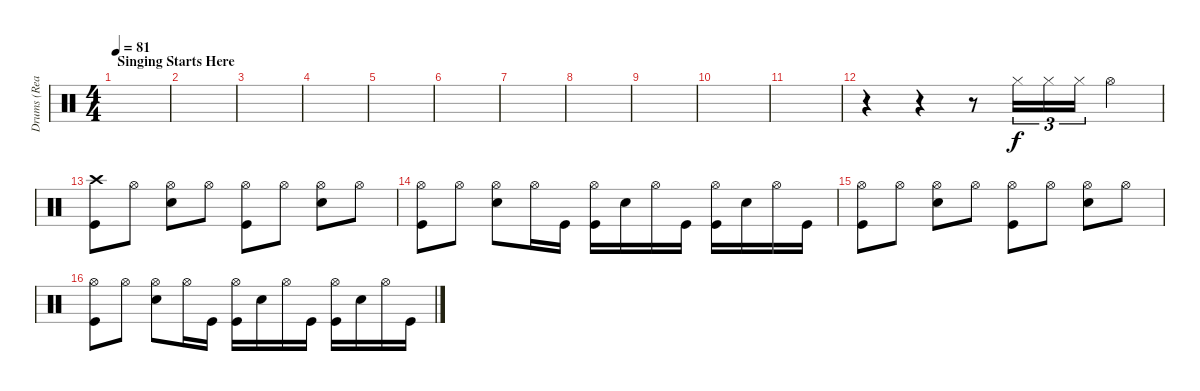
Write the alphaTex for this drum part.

\track ("Drums (Real)" "Drums (Rea") {instrument percussion}
\staff {score}
\articulation defaults
\ts (4 4)
\section ("" "Singing Starts Here")
\tempo 81
\clef neutral
\ks c
|
|
|
|
|
|
|
|
|
|
|
r.4 r.4 r.8 "Hi-Hat (closed)".16{tu (3 2)} "Hi-Hat (closed)".16{tu (3 2)} "Hi-Hat (closed)".16{tu (3 2)} "Hi-Hat (open)".4 |
("Crash high (hit)" "Kick (hit)").8 "Hi-Hat (open)".8 ("Hi-Hat (open)" "Snare (hit) 2").8 "Hi-Hat (open)".8 ("Hi-Hat (open)" "Kick (hit)").8 "Hi-Hat (open)".8 ("Hi-Hat (open)" "Snare (hit) 2").8 "Hi-Hat (open)".8 |
("Hi-Hat (open)" "Kick (hit)").8 "Hi-Hat (open)".8 ("Hi-Hat (open)" "Snare (hit) 2").8 "Hi-Hat (open)".16 "Kick (hit)".16 ("Hi-Hat (open)" "Kick (hit)").16 "Snare (hit) 2".16 "Hi-Hat (open)".16 "Kick (hit)".16 ("Hi-Hat (open)" "Kick (hit)").16 "Snare (hit) 2".16 "Hi-Hat (open)".16 "Kick (hit)".16 |
("Hi-Hat (open)" "Kick (hit)").8 "Hi-Hat (open)".8 ("Hi-Hat (open)" "Snare (hit) 2").8 "Hi-Hat (open)".8 ("Hi-Hat (open)" "Kick (hit)").8 "Hi-Hat (open)".8 ("Hi-Hat (open)" "Snare (hit) 2").8 "Hi-Hat (open)".8 |
("Hi-Hat (open)" "Kick (hit)").8 "Hi-Hat (open)".8 ("Hi-Hat (open)" "Snare (hit) 2").8 "Hi-Hat (open)".16 "Kick (hit)".16 ("Hi-Hat (open)" "Kick (hit)").16 "Snare (hit) 2".16 "Hi-Hat (open)".16 "Kick (hit)".16 ("Hi-Hat (open)" "Kick (hit)").16 "Snare (hit) 2".16 "Hi-Hat (open)".16 "Kick (hit)".16
